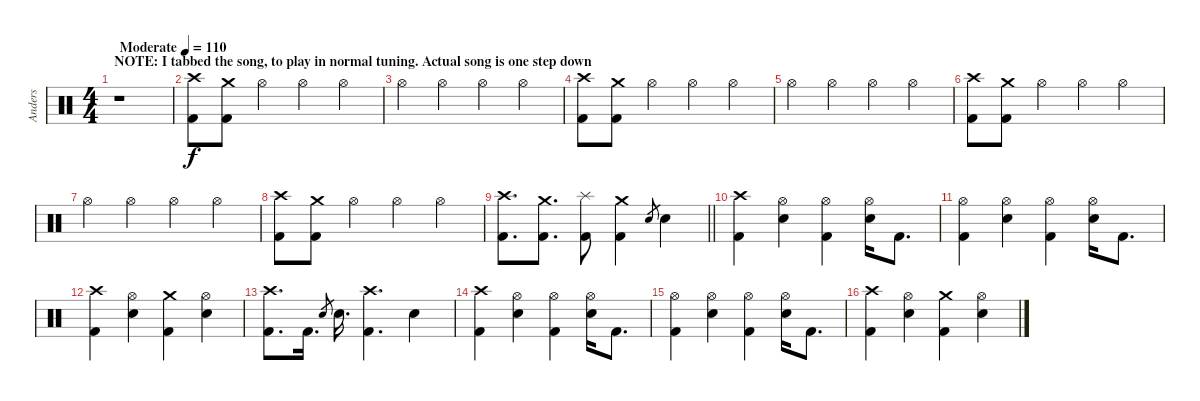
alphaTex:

\track ("Anders" "Anders") {instrument percussion}
\staff {score}
\articulation defaults
\ts (4 4)
\section ("" "NOTE: I tabbed the song, to play in normal tuning. Actual song is one step down")
\tempo (110 "Moderate")
\clef neutral
\ks c
r.1{dy f} |
("Crash high (hit)" "Kick (hit) 2").8 ("Crash medium (hit)" "Kick (hit) 2").8 "Hi-Hat (open)".4 "Hi-Hat (open)".4 "Hi-Hat (open)".4 |
"Hi-Hat (open)".4 "Hi-Hat (open)".4 "Hi-Hat (open)".4 "Hi-Hat (open)".4 |
("Crash high (hit)" "Kick (hit) 2").8 ("Crash medium (hit)" "Kick (hit) 2").8 "Hi-Hat (open)".4 "Hi-Hat (open)".4 "Hi-Hat (open)".4 |
"Hi-Hat (open)".4 "Hi-Hat (open)".4 "Hi-Hat (open)".4 "Hi-Hat (open)".4 |
("Crash high (hit)" "Kick (hit) 2").8 ("Crash medium (hit)" "Kick (hit) 2").8 "Hi-Hat (open)".4 "Hi-Hat (open)".4 "Hi-Hat (open)".4 |
"Hi-Hat (open)".4 "Hi-Hat (open)".4 "Hi-Hat (open)".4 "Hi-Hat (open)".4 |
("Crash high (hit)" "Kick (hit) 2").8 ("Crash medium (hit)" "Kick (hit) 2").8 "Hi-Hat (open)".4 "Hi-Hat (open)".4 "Hi-Hat (open)".4 |
\barLineRight lightlight
("Crash high (hit)" "Kick (hit) 2").8{d} ("Crash medium (hit)" "Kick (hit) 2").8{d} ("Splash (hit)" "Kick (hit) 2").8 ("Crash medium (hit)" "Kick (hit) 2").4 "Snare (hit) 2".8{gr} "Snare (hit) 2".4 |
("Crash high (hit)" "Kick (hit) 2").4 ("Hi-Hat (open)" "Snare (hit) 2").4 ("Hi-Hat (open)" "Kick (hit) 2").4 ("Hi-Hat (open)" "Snare (hit) 2").16 "Kick (hit) 2".8{d} |
("Hi-Hat (open)" "Kick (hit) 2").4 ("Hi-Hat (open)" "Snare (hit) 2").4 ("Hi-Hat (open)" "Kick (hit) 2").4 ("Hi-Hat (open)" "Snare (hit) 2").16 "Kick (hit) 2".8{d} |
("Crash high (hit)" "Kick (hit) 2").4 ("Hi-Hat (open)" "Snare (hit) 2").4 ("Crash medium (hit)" "Kick (hit) 2").4 ("Hi-Hat (open)" "Snare (hit) 2").4 |
("Crash high (hit)" "Kick (hit) 2").8{d} "Kick (hit) 2".16{d} "Snare (hit) 2".8{gr} "Snare (hit) 2".16{d} ("Crash high (hit)" "Kick (hit) 2").4{d} "Snare (hit) 2".4 |
("Crash high (hit)" "Kick (hit) 2").4 ("Hi-Hat (open)" "Snare (hit) 2").4 ("Hi-Hat (open)" "Kick (hit) 2").4 ("Hi-Hat (open)" "Snare (hit) 2").16 "Kick (hit) 2".8{d} |
("Hi-Hat (open)" "Kick (hit) 2").4 ("Hi-Hat (open)" "Snare (hit) 2").4 ("Hi-Hat (open)" "Kick (hit) 2").4 ("Hi-Hat (open)" "Snare (hit) 2").16 "Kick (hit) 2".8{d} |
("Crash high (hit)" "Kick (hit) 2").4 ("Hi-Hat (open)" "Snare (hit) 2").4 ("Crash medium (hit)" "Kick (hit) 2").4 ("Hi-Hat (open)" "Snare (hit) 2").4
